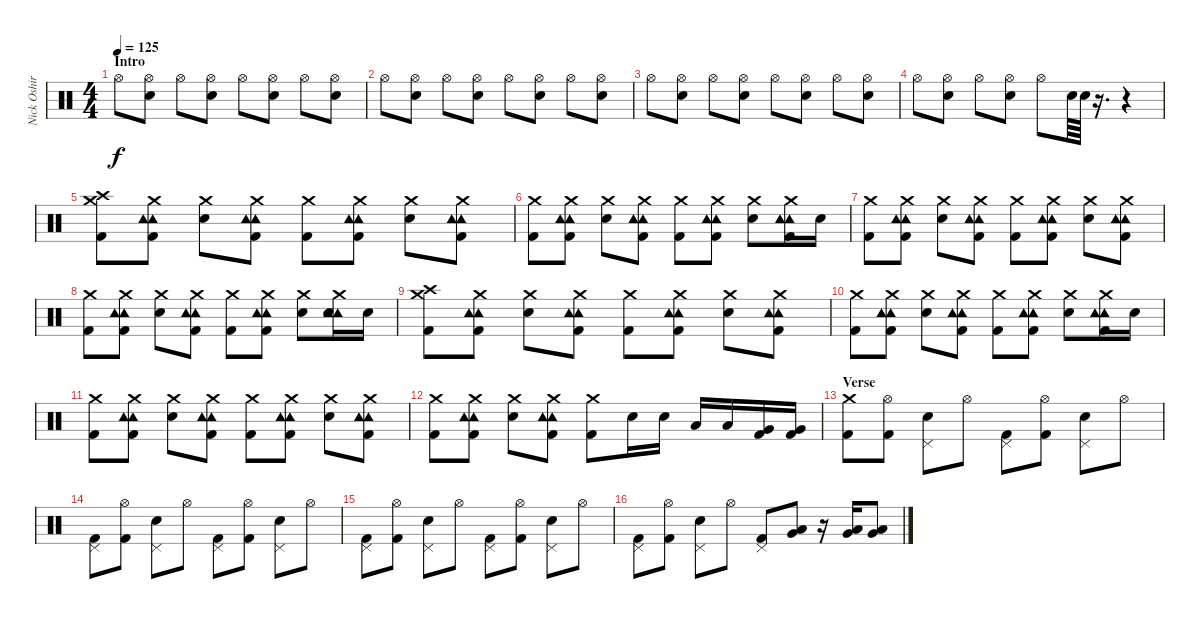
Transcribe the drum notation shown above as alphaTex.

\track ("Nick Oshiro - Drums" "Nick Oshir") {instrument percussion}
\staff {score}
\articulation defaults
\ts (4 4)
\section ("" "Intro")
\tempo 125
\clef neutral
\ks c "Hi-Hat (open)".8{dy f}
("Hi-Hat (open)" "Electric Snare (hit)").8 "Hi-Hat (open)".8 ("Hi-Hat (open)" "Electric Snare (hit)").8 "Hi-Hat (open)".8 ("Hi-Hat (open)" "Electric Snare (hit)").8 "Hi-Hat (open)".8 ("Hi-Hat (open)" "Electric Snare (hit)").8 |
"Hi-Hat (open)".8 ("Hi-Hat (open)" "Electric Snare (hit)").8 "Hi-Hat (open)".8 ("Hi-Hat (open)" "Electric Snare (hit)").8 "Hi-Hat (open)".8 ("Hi-Hat (open)" "Electric Snare (hit)").8 "Hi-Hat (open)".8 ("Hi-Hat (open)" "Electric Snare (hit)").8 |
"Hi-Hat (open)".8 ("Hi-Hat (open)" "Electric Snare (hit)").8 "Hi-Hat (open)".8 ("Hi-Hat (open)" "Electric Snare (hit)").8 "Hi-Hat (open)".8 ("Hi-Hat (open)" "Electric Snare (hit)").8 "Hi-Hat (open)".8 ("Hi-Hat (open)" "Electric Snare (hit)").8 |
"Hi-Hat (open)".8 ("Hi-Hat (open)" "Electric Snare (hit)").8 "Hi-Hat (open)".8 ("Hi-Hat (open)" "Electric Snare (hit)").8 "Hi-Hat (open)".8 "Electric Snare (hit)".64 "Electric Snare (hit)".64 r.16{d} r.4 |
("Crash medium (hit)" "Crash high (hit)" "Kick (hit) 2").8 ("Crash medium (hit)" "Tambourine (hit)" "Tambourine (hit)" "Kick (hit) 2").8 ("Crash medium (hit)" "Electric Snare (hit)").8 ("Crash medium (hit)" "Tambourine (hit)" "Tambourine (hit)" "Kick (hit) 2").8 ("Crash medium (hit)" "Kick (hit) 2").8 ("Crash medium (hit)" "Tambourine (hit)" "Tambourine (hit)" "Kick (hit) 2").8 ("Crash medium (hit)" "Electric Snare (hit)").8 ("Crash medium (hit)" "Tambourine (hit)" "Tambourine (hit)" "Kick (hit) 2").8 |
("Crash medium (hit)" "Kick (hit) 2").8 ("Crash medium (hit)" "Tambourine (hit)" "Tambourine (hit)" "Kick (hit) 2").8 ("Crash medium (hit)" "Electric Snare (hit)").8 ("Crash medium (hit)" "Tambourine (hit)" "Tambourine (hit)" "Kick (hit) 2").8 ("Crash medium (hit)" "Kick (hit) 2").8 ("Crash medium (hit)" "Tambourine (hit)" "Tambourine (hit)" "Kick (hit) 2").8 ("Crash medium (hit)" "Electric Snare (hit)").8 ("Crash medium (hit)" "Tambourine (hit)" "Tambourine (hit)" "Kick (hit) 2").16 "Electric Snare (hit)".16 |
("Crash medium (hit)" "Kick (hit) 2").8 ("Crash medium (hit)" "Tambourine (hit)" "Tambourine (hit)" "Kick (hit) 2").8 ("Crash medium (hit)" "Electric Snare (hit)").8 ("Crash medium (hit)" "Tambourine (hit)" "Tambourine (hit)" "Kick (hit) 2").8 ("Crash medium (hit)" "Kick (hit) 2").8 ("Crash medium (hit)" "Tambourine (hit)" "Tambourine (hit)" "Kick (hit) 2").8 ("Crash medium (hit)" "Electric Snare (hit)").8 ("Crash medium (hit)" "Tambourine (hit)" "Tambourine (hit)" "Kick (hit) 2").8 |
("Crash medium (hit)" "Kick (hit) 2").8 ("Crash medium (hit)" "Tambourine (hit)" "Tambourine (hit)" "Kick (hit) 2").8 ("Crash medium (hit)" "Electric Snare (hit)").8 ("Crash medium (hit)" "Tambourine (hit)" "Tambourine (hit)" "Kick (hit) 2").8 ("Crash medium (hit)" "Kick (hit) 2").8 ("Crash medium (hit)" "Tambourine (hit)" "Tambourine (hit)" "Kick (hit) 2").8 ("Crash medium (hit)" "Electric Snare (hit)").8 ("Crash medium (hit)" "Tambourine (hit)" "Tambourine (hit)" "Electric Snare (hit)").16 "Electric Snare (hit)".16 |
("Crash medium (hit)" "Crash high (hit)" "Kick (hit) 2").8 ("Crash medium (hit)" "Tambourine (hit)" "Tambourine (hit)" "Kick (hit) 2").8 ("Crash medium (hit)" "Electric Snare (hit)").8 ("Crash medium (hit)" "Tambourine (hit)" "Tambourine (hit)" "Kick (hit) 2").8 ("Crash medium (hit)" "Kick (hit) 2").8 ("Crash medium (hit)" "Tambourine (hit)" "Tambourine (hit)" "Kick (hit) 2").8 ("Crash medium (hit)" "Electric Snare (hit)").8 ("Crash medium (hit)" "Tambourine (hit)" "Tambourine (hit)" "Kick (hit) 2").8 |
("Crash medium (hit)" "Kick (hit) 2").8 ("Crash medium (hit)" "Tambourine (hit)" "Tambourine (hit)" "Kick (hit) 2").8 ("Crash medium (hit)" "Electric Snare (hit)").8 ("Crash medium (hit)" "Tambourine (hit)" "Tambourine (hit)" "Kick (hit) 2").8 ("Crash medium (hit)" "Kick (hit) 2").8 ("Crash medium (hit)" "Tambourine (hit)" "Tambourine (hit)" "Kick (hit) 2").8 ("Crash medium (hit)" "Electric Snare (hit)").8 ("Crash medium (hit)" "Tambourine (hit)" "Tambourine (hit)" "Kick (hit) 2").16 "Electric Snare (hit)".16 |
("Crash medium (hit)" "Kick (hit) 2").8 ("Crash medium (hit)" "Tambourine (hit)" "Tambourine (hit)" "Kick (hit) 2").8 ("Crash medium (hit)" "Electric Snare (hit)").8 ("Crash medium (hit)" "Tambourine (hit)" "Tambourine (hit)" "Kick (hit) 2").8 ("Crash medium (hit)" "Kick (hit) 2").8 ("Crash medium (hit)" "Tambourine (hit)" "Tambourine (hit)" "Kick (hit) 2").8 ("Crash medium (hit)" "Electric Snare (hit)").8 ("Crash medium (hit)" "Tambourine (hit)" "Tambourine (hit)" "Kick (hit) 2").8 |
("Crash medium (hit)" "Kick (hit) 2").8 ("Crash medium (hit)" "Tambourine (hit)" "Tambourine (hit)" "Kick (hit) 2").8 ("Crash medium (hit)" "Electric Snare (hit)").8 ("Crash medium (hit)" "Tambourine (hit)" "Tambourine (hit)" "Kick (hit) 2").8 ("Crash medium (hit)" "Kick (hit) 2").8 "Electric Snare (hit)".16 "Electric Snare (hit)".16 "Low Tom (hit)".16 "Low Tom (hit)".16 ("Very Low Tom (hit)" "Kick (hit) 2").16 ("Very Low Tom (hit)" "Kick (hit) 2").16 |
\section ("" "Verse")
("Crash medium (hit)" "Kick (hit) 2").8 ("Hi-Hat (open)" "Kick (hit) 2").8 ("Pedal Hi-Hat (hit)" "Electric Snare (hit)").8 "Hi-Hat (open)".8 ("Pedal Hi-Hat (hit)" "Kick (hit) 2").8 ("Hi-Hat (open)" "Kick (hit) 2").8 ("Pedal Hi-Hat (hit)" "Electric Snare (hit)").8 "Hi-Hat (open)".8 |
("Pedal Hi-Hat (hit)" "Kick (hit) 2").8 ("Hi-Hat (open)" "Kick (hit) 2").8 ("Pedal Hi-Hat (hit)" "Electric Snare (hit)").8 "Hi-Hat (open)".8 ("Pedal Hi-Hat (hit)" "Kick (hit) 2").8 ("Hi-Hat (open)" "Kick (hit) 2").8 ("Pedal Hi-Hat (hit)" "Electric Snare (hit)").8 "Hi-Hat (open)".8 |
("Pedal Hi-Hat (hit)" "Kick (hit) 2").8 ("Hi-Hat (open)" "Kick (hit) 2").8 ("Pedal Hi-Hat (hit)" "Electric Snare (hit)").8 "Hi-Hat (open)".8 ("Pedal Hi-Hat (hit)" "Kick (hit) 2").8 ("Hi-Hat (open)" "Kick (hit) 2").8 ("Pedal Hi-Hat (hit)" "Electric Snare (hit)").8 "Hi-Hat (open)".8 |
("Pedal Hi-Hat (hit)" "Kick (hit) 2").8 ("Hi-Hat (open)" "Kick (hit) 2").8 ("Pedal Hi-Hat (hit)" "Electric Snare (hit)").8 "Hi-Hat (open)".8 ("Pedal Hi-Hat (hit)" "Kick (hit) 2").8 ("Low Tom (hit)" "Very Low Tom (hit)").8 r.16 ("Low Tom (hit)" "Very Low Tom (hit)").16 ("Low Tom (hit)" "Very Low Tom (hit)").8
